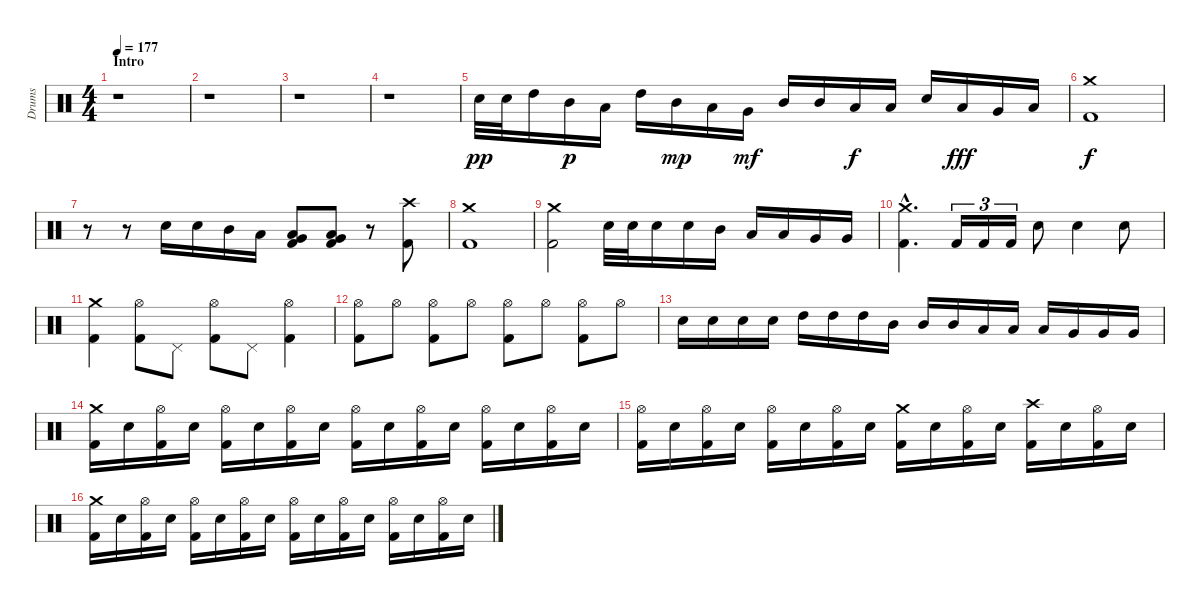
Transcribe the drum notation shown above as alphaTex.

\track ("Drums" "Drums") {instrument percussion}
\staff {score}
\articulation defaults
\ts (4 4)
\section ("" "Intro")
\tempo 177
\clef neutral
\ks c
r.1{dy pp} |
r.1 |
r.1 |
r.1 |
"Electric Snare (hit)".32 "Electric Snare (hit)".32 "High Tom (hit)".16 "Mid Tom (hit)".16{dy p} "Low Tom (hit)".16 "High Tom (hit)".16 "Mid Tom (hit)".16{dy mp} "Low Tom (hit)".16 "Very Low Tom (hit)".16{dy mf} "Mid Tom (hit)".16 "Mid Tom (hit)".16 "Low Tom (hit)".16{dy f} "Low Tom (hit)".16 "Electric Snare (hit)".16 "Low Tom (hit)".16{dy fff} "Very Low Tom (hit)".16 "Low Floor Tom (hit)".16 |
("Kick (hit) 2" "Crash medium (hit)").1{dy f} |
r.8 r.8 "Electric Snare (hit)".16 "Electric Snare (hit)".16 "Mid Tom (hit)".16 "Low Tom (hit)".16 ("Kick (hit) 2" "Low Tom (hit)" "Very Low Tom (hit)").8 ("Kick (hit) 2" "Low Tom (hit)" "Very Low Tom (hit)").8 r.8 ("Kick (hit) 2" "Crash high (hit)").8 |
("Kick (hit) 2" "Crash medium (hit)").1 |
("Kick (hit) 2" "Crash medium (hit)").2 "Electric Snare (hit)".32 "Electric Snare (hit)".32 "Electric Snare (hit)".16 "Electric Snare (hit)".16 "Mid Tom (hit)".16 "Low Tom (hit)".16 "Low Tom (hit)".16 "Very Low Tom (hit)".16 "Very Low Tom (hit)".16 |
("Kick (hit) 2"{hac} "Crash medium (hit)"{hac}).4{d} "Kick (hit) 2".16{tu (3 2)} "Kick (hit) 2".16{tu (3 2)} "Kick (hit) 2".16{tu (3 2)} "Electric Snare (hit)".8 "Electric Snare (hit)".4 "Electric Snare (hit)".8 |
("Kick (hit) 2" "Crash medium (hit)").4 ("Kick (hit) 2" "Hi-Hat (open)").8 "Pedal Hi-Hat (hit)".8 ("Kick (hit) 2" "Hi-Hat (open)").8 "Pedal Hi-Hat (hit)".8 ("Kick (hit) 2" "Hi-Hat (open)").4 |
("Kick (hit) 2" "Hi-Hat (open)").8 "Hi-Hat (open)".8 ("Kick (hit) 2" "Hi-Hat (open)").8 "Hi-Hat (open)".8 ("Kick (hit) 2" "Hi-Hat (open)").8 "Hi-Hat (open)".8 ("Kick (hit) 2" "Hi-Hat (open)").8 "Hi-Hat (open)".8 |
"Electric Snare (hit)".16 "Electric Snare (hit)".16 "Electric Snare (hit)".16 "Electric Snare (hit)".16 "High Tom (hit)".16 "High Tom (hit)".16 "High Tom (hit)".16 "Mid Tom (hit)".16 "Mid Tom (hit)".16 "Mid Tom (hit)".16 "Low Tom (hit)".16 "Low Tom (hit)".16 "Low Tom (hit)".16 "Very Low Tom (hit)".16 "Very Low Tom (hit)".16 "Very Low Tom (hit)".16 |
("Kick (hit) 2" "Crash medium (hit)").16 "Electric Snare (hit)".16 ("Kick (hit) 2" "Hi-Hat (open)").16 "Electric Snare (hit)".16 ("Kick (hit) 2" "Hi-Hat (open)").16 "Electric Snare (hit)".16 ("Kick (hit) 2" "Hi-Hat (open)").16 "Electric Snare (hit)".16 ("Kick (hit) 2" "Hi-Hat (open)").16 "Electric Snare (hit)".16 ("Kick (hit) 2" "Hi-Hat (open)").16 "Electric Snare (hit)".16 ("Kick (hit) 2" "Hi-Hat (open)").16 "Electric Snare (hit)".16 ("Kick (hit) 2" "Hi-Hat (open)").16 "Electric Snare (hit)".16 |
("Kick (hit) 2" "Hi-Hat (open)").16 "Electric Snare (hit)".16 ("Kick (hit) 2" "Hi-Hat (open)").16 "Electric Snare (hit)".16 ("Kick (hit) 2" "Hi-Hat (open)").16 "Electric Snare (hit)".16 ("Kick (hit) 2" "Hi-Hat (open)").16 "Electric Snare (hit)".16 ("Kick (hit) 2" "Crash medium (hit)").16 "Electric Snare (hit)".16 ("Kick (hit) 2" "Hi-Hat (open)").16 "Electric Snare (hit)".16 ("Kick (hit) 2" "Crash high (hit)").16 "Electric Snare (hit)".16 ("Kick (hit) 2" "Hi-Hat (open)").16 "Electric Snare (hit)".16 |
("Kick (hit) 2" "Crash medium (hit)").16 "Electric Snare (hit)".16 ("Kick (hit) 2" "Hi-Hat (open)").16 "Electric Snare (hit)".16 ("Kick (hit) 2" "Hi-Hat (open)").16 "Electric Snare (hit)".16 ("Kick (hit) 2" "Hi-Hat (open)").16 "Electric Snare (hit)".16 ("Kick (hit) 2" "Hi-Hat (open)").16 "Electric Snare (hit)".16 ("Kick (hit) 2" "Hi-Hat (open)").16 "Electric Snare (hit)".16 ("Kick (hit) 2" "Hi-Hat (open)").16 "Electric Snare (hit)".16 ("Kick (hit) 2" "Hi-Hat (open)").16 "Electric Snare (hit)".16
